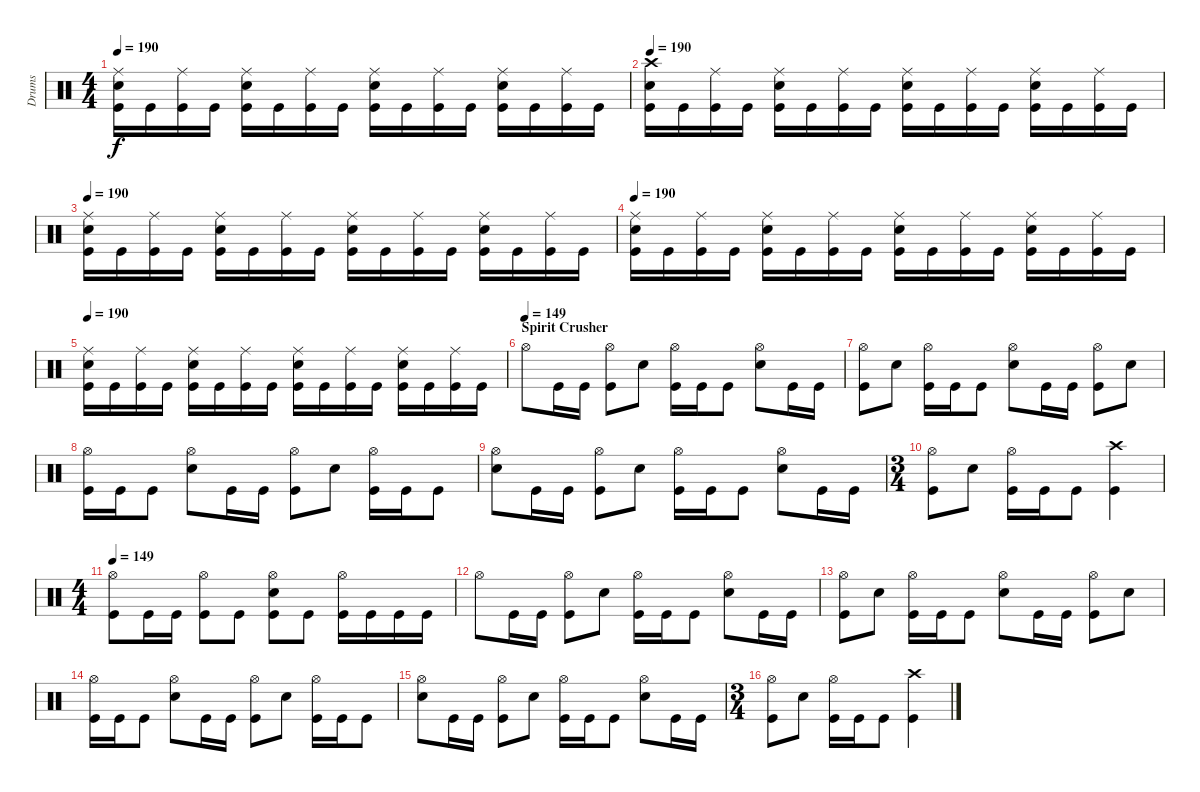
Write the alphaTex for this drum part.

\track ("Drums" "Drums") {instrument percussion}
\staff {score}
\articulation defaults
\ts (4 4)
\tempo 190
\clef neutral
\ks c
("Ride (middle)" "Snare (hit) 2" "Kick (hit)").16{dy f} "Kick (hit)".16 ("Ride (middle)" "Kick (hit)").16 "Kick (hit)".16 ("Ride (middle)" "Snare (hit) 2" "Kick (hit)").16 "Kick (hit)".16 ("Ride (middle)" "Kick (hit)").16 "Kick (hit)".16 ("Ride (middle)" "Snare (hit) 2" "Kick (hit)").16 "Kick (hit)".16 ("Ride (middle)" "Kick (hit)").16 "Kick (hit)".16 ("Ride (middle)" "Snare (hit) 2" "Kick (hit)").16 "Kick (hit)".16 ("Ride (middle)" "Kick (hit)").16 "Kick (hit)".16 |
\tempo 190
("Crash high (hit)" "Snare (hit) 2" "Kick (hit)").16 "Kick (hit)".16 ("Ride (middle)" "Kick (hit)").16 "Kick (hit)".16 ("Ride (middle)" "Snare (hit) 2" "Kick (hit)").16 "Kick (hit)".16 ("Ride (middle)" "Kick (hit)").16 "Kick (hit)".16 ("Ride (middle)" "Snare (hit) 2" "Kick (hit)").16 "Kick (hit)".16 ("Ride (middle)" "Kick (hit)").16 "Kick (hit)".16 ("Ride (middle)" "Snare (hit) 2" "Kick (hit)").16 "Kick (hit)".16 ("Ride (middle)" "Kick (hit)").16 "Kick (hit)".16 |
\tempo 190
("Ride (middle)" "Snare (hit) 2" "Kick (hit)").16 "Kick (hit)".16 ("Ride (middle)" "Kick (hit)").16 "Kick (hit)".16 ("Ride (middle)" "Snare (hit) 2" "Kick (hit)").16 "Kick (hit)".16 ("Ride (middle)" "Kick (hit)").16 "Kick (hit)".16 ("Ride (middle)" "Snare (hit) 2" "Kick (hit)").16 "Kick (hit)".16 ("Ride (middle)" "Kick (hit)").16 "Kick (hit)".16 ("Ride (middle)" "Snare (hit) 2" "Kick (hit)").16 "Kick (hit)".16 ("Ride (middle)" "Kick (hit)").16 "Kick (hit)".16 |
\tempo 190
("Ride (middle)" "Snare (hit) 2" "Kick (hit)").16 "Kick (hit)".16 ("Ride (middle)" "Kick (hit)").16 "Kick (hit)".16 ("Ride (middle)" "Snare (hit) 2" "Kick (hit)").16 "Kick (hit)".16 ("Ride (middle)" "Kick (hit)").16 "Kick (hit)".16 ("Ride (middle)" "Snare (hit) 2" "Kick (hit)").16 "Kick (hit)".16 ("Ride (middle)" "Kick (hit)").16 "Kick (hit)".16 ("Ride (middle)" "Snare (hit) 2" "Kick (hit)").16 "Kick (hit)".16 ("Ride (middle)" "Kick (hit)").16 "Kick (hit)".16 |
\tempo 190
("Ride (middle)" "Snare (hit) 2" "Kick (hit)").16 "Kick (hit)".16 ("Ride (middle)" "Kick (hit)").16 "Kick (hit)".16 ("Ride (middle)" "Snare (hit) 2" "Kick (hit)").16 "Kick (hit)".16 ("Ride (middle)" "Kick (hit)").16 "Kick (hit)".16 ("Ride (middle)" "Snare (hit) 2" "Kick (hit)").16 "Kick (hit)".16 ("Ride (middle)" "Kick (hit)").16 "Kick (hit)".16 ("Ride (middle)" "Snare (hit) 2" "Kick (hit)").16 "Kick (hit)".16 ("Ride (middle)" "Kick (hit)").16 "Kick (hit)".16 |
\section ("" "Spirit Crusher")
\tempo (149)
"Hi-Hat (open)".8 "Kick (hit)".16 "Kick (hit)".16 ("Hi-Hat (open)" "Kick (hit)").8 "Snare (hit) 2".8 ("Hi-Hat (open)" "Kick (hit)").16 "Kick (hit)".16 "Kick (hit)".8 ("Hi-Hat (open)" "Snare (hit) 2").8 "Kick (hit)".16 "Kick (hit)".16 |
("Hi-Hat (open)" "Kick (hit)").8 "Snare (hit) 2".8 ("Hi-Hat (open)" "Kick (hit)").16 "Kick (hit)".16 "Kick (hit)".8 ("Hi-Hat (open)" "Snare (hit) 2").8 "Kick (hit)".16 "Kick (hit)".16 ("Hi-Hat (open)" "Kick (hit)").8 "Snare (hit) 2".8 |
("Hi-Hat (open)" "Kick (hit)").16 "Kick (hit)".16 "Kick (hit)".8 ("Hi-Hat (open)" "Snare (hit) 2").8 "Kick (hit)".16 "Kick (hit)".16 ("Hi-Hat (open)" "Kick (hit)").8 "Snare (hit) 2".8 ("Hi-Hat (open)" "Kick (hit)").16 "Kick (hit)".16 "Kick (hit)".8 |
("Hi-Hat (open)" "Snare (hit) 2").8 "Kick (hit)".16 "Kick (hit)".16 ("Hi-Hat (open)" "Kick (hit)").8 "Snare (hit) 2".8 ("Hi-Hat (open)" "Kick (hit)").16 "Kick (hit)".16 "Kick (hit)".8 ("Hi-Hat (open)" "Snare (hit) 2").8 "Kick (hit)".16 "Kick (hit)".16 |
\ts (3 4)
("Hi-Hat (open)" "Kick (hit)").8 "Snare (hit) 2".8 ("Hi-Hat (open)" "Kick (hit)").16 "Kick (hit)".16 "Kick (hit)".8 ("Crash high (hit)" "Kick (hit)").4 |
\ts (4 4)
\tempo 149
("Hi-Hat (open)" "Kick (hit)").8 "Kick (hit)".16 "Kick (hit)".16 ("Hi-Hat (open)" "Kick (hit)").8 "Kick (hit)".8 ("Hi-Hat (open)" "Snare (hit) 2" "Kick (hit)").8 "Kick (hit)".8 ("Hi-Hat (open)" "Kick (hit)").16 "Kick (hit)".16 "Kick (hit)".16 "Kick (hit)".16 |
"Hi-Hat (open)".8 "Kick (hit)".16 "Kick (hit)".16 ("Hi-Hat (open)" "Kick (hit)").8 "Snare (hit) 2".8 ("Hi-Hat (open)" "Kick (hit)").16 "Kick (hit)".16 "Kick (hit)".8 ("Hi-Hat (open)" "Snare (hit) 2").8 "Kick (hit)".16 "Kick (hit)".16 |
("Hi-Hat (open)" "Kick (hit)").8 "Snare (hit) 2".8 ("Hi-Hat (open)" "Kick (hit)").16 "Kick (hit)".16 "Kick (hit)".8 ("Hi-Hat (open)" "Snare (hit) 2").8 "Kick (hit)".16 "Kick (hit)".16 ("Hi-Hat (open)" "Kick (hit)").8 "Snare (hit) 2".8 |
("Hi-Hat (open)" "Kick (hit)").16 "Kick (hit)".16 "Kick (hit)".8 ("Hi-Hat (open)" "Snare (hit) 2").8 "Kick (hit)".16 "Kick (hit)".16 ("Hi-Hat (open)" "Kick (hit)").8 "Snare (hit) 2".8 ("Hi-Hat (open)" "Kick (hit)").16 "Kick (hit)".16 "Kick (hit)".8 |
("Hi-Hat (open)" "Snare (hit) 2").8 "Kick (hit)".16 "Kick (hit)".16 ("Hi-Hat (open)" "Kick (hit)").8 "Snare (hit) 2".8 ("Hi-Hat (open)" "Kick (hit)").16 "Kick (hit)".16 "Kick (hit)".8 ("Hi-Hat (open)" "Snare (hit) 2").8 "Kick (hit)".16 "Kick (hit)".16 |
\ts (3 4)
("Hi-Hat (open)" "Kick (hit)").8 "Snare (hit) 2".8 ("Hi-Hat (open)" "Kick (hit)").16 "Kick (hit)".16 "Kick (hit)".8 ("Crash high (hit)" "Kick (hit)").4
